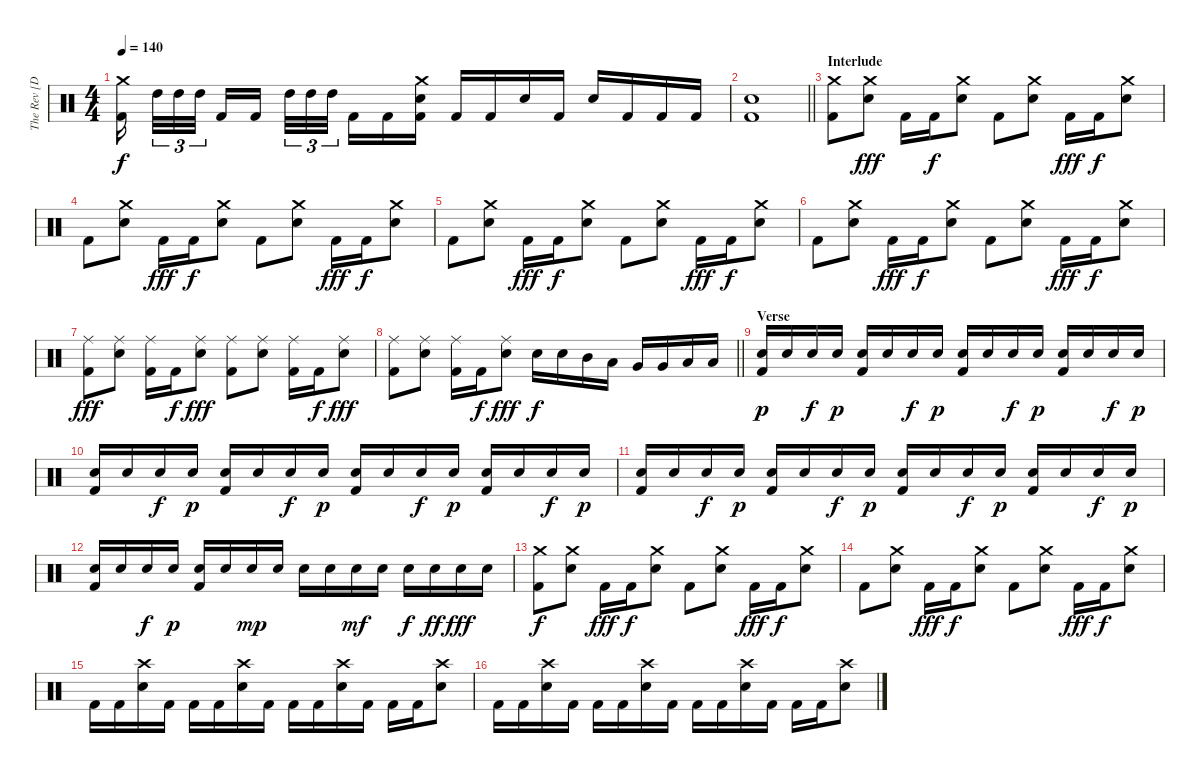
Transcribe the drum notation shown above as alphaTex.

\track ("The Rev [Drum]" "The Rev [D") {instrument percussion}
\staff {score}
\articulation defaults
\ts (4 4)
\tempo 140
\clef neutral
\ks c
("Crash medium (hit)" "Kick (hit) 2").16{dy f beam splitsecondary} "High Tom (hit)".32{tu (3 2)} "High Tom (hit)".32{tu (3 2)} "High Tom (hit)".32{tu (3 2) beam splitsecondary} "Kick (hit) 2".16 "Kick (hit) 2".16 "High Tom (hit)".32{tu (3 2)} "High Tom (hit)".32{tu (3 2)} "High Tom (hit)".32{tu (3 2) beam splitsecondary} "Kick (hit) 2".16 "Kick (hit) 2".16 ("Crash medium (hit)" "Snare (hit) 2" "Kick (hit) 2").16 "Kick (hit) 2".16 "Kick (hit) 2".16 "Snare (hit) 2".16 "Kick (hit) 2".16 "Snare (hit) 2".16 "Kick (hit) 2".16 "Kick (hit) 2".16 "Kick (hit) 2".16 |
\barLineRight lightlight
("Snare (hit) 2" "Kick (hit) 2").1 |
\section ("" "Interlude")
("Crash medium (hit)" "Kick (hit) 2").8 ("Crash medium (hit)" "Snare (hit) 2").8{dy fff} "Kick (hit) 2".16 "Kick (hit) 2".16{dy f} ("Crash medium (hit)" "Snare (hit) 2").8 "Kick (hit) 2".8 ("Crash medium (hit)" "Snare (hit) 2").8 "Kick (hit) 2".16{dy fff} "Kick (hit) 2".16{dy f} ("Crash medium (hit)" "Snare (hit) 2").8 |
"Kick (hit) 2".8 ("Crash medium (hit)" "Snare (hit) 2").8 "Kick (hit) 2".16{dy fff} "Kick (hit) 2".16{dy f} ("Crash medium (hit)" "Snare (hit) 2").8 "Kick (hit) 2".8 ("Crash medium (hit)" "Snare (hit) 2").8 "Kick (hit) 2".16{dy fff} "Kick (hit) 2".16{dy f} ("Crash medium (hit)" "Snare (hit) 2").8 |
"Kick (hit) 2".8 ("Crash medium (hit)" "Snare (hit) 2").8 "Kick (hit) 2".16{dy fff} "Kick (hit) 2".16{dy f} ("Crash medium (hit)" "Snare (hit) 2").8 "Kick (hit) 2".8 ("Crash medium (hit)" "Snare (hit) 2").8 "Kick (hit) 2".16{dy fff} "Kick (hit) 2".16{dy f} ("Crash medium (hit)" "Snare (hit) 2").8 |
"Kick (hit) 2".8 ("Crash medium (hit)" "Snare (hit) 2").8 "Kick (hit) 2".16{dy fff} "Kick (hit) 2".16{dy f} ("Crash medium (hit)" "Snare (hit) 2").8 "Kick (hit) 2".8 ("Crash medium (hit)" "Snare (hit) 2").8 "Kick (hit) 2".16{dy fff} "Kick (hit) 2".16{dy f} ("Crash medium (hit)" "Snare (hit) 2").8 |
("Ride (middle)" "Kick (hit) 2").8{dy fff} ("Ride (middle)" "Snare (hit) 2").8 ("Ride (middle)" "Kick (hit) 2").16 "Kick (hit) 2".16{dy f} ("Ride (middle)" "Snare (hit) 2").8{dy fff} ("Ride (middle)" "Kick (hit) 2").8 ("Ride (middle)" "Snare (hit) 2").8 ("Ride (middle)" "Kick (hit) 2").16 "Kick (hit) 2".16{dy f} ("Ride (middle)" "Snare (hit) 2").8{dy fff} |
\barLineRight lightlight
("Ride (middle)" "Kick (hit) 2").8 ("Ride (middle)" "Snare (hit) 2").8 ("Ride (middle)" "Kick (hit) 2").16 "Kick (hit) 2".16{dy f} ("Ride (middle)" "Snare (hit) 2").8{dy fff} "Snare (hit) 2".16{dy f} "Snare (hit) 2".16 "Mid Tom (hit)".16 "Low Tom (hit)".16 "Very Low Tom (hit)".16 "Very Low Tom (hit)".16 "Low Floor Tom (hit)".16 "Low Floor Tom (hit)".16 |
\section ("" "Verse")
("Snare (hit) 2" "Kick (hit) 2").16{dy p} "Snare (hit) 2".16 "Snare (hit) 2".16{dy f} "Snare (hit) 2".16{dy p} ("Snare (hit) 2" "Kick (hit) 2").16 "Snare (hit) 2".16 "Snare (hit) 2".16{dy f} "Snare (hit) 2".16{dy p} ("Snare (hit) 2" "Kick (hit) 2").16 "Snare (hit) 2".16 "Snare (hit) 2".16{dy f} "Snare (hit) 2".16{dy p} ("Snare (hit) 2" "Kick (hit) 2").16 "Snare (hit) 2".16 "Snare (hit) 2".16{dy f} "Snare (hit) 2".16{dy p} |
("Snare (hit) 2" "Kick (hit) 2").16 "Snare (hit) 2".16 "Snare (hit) 2".16{dy f} "Snare (hit) 2".16{dy p} ("Snare (hit) 2" "Kick (hit) 2").16 "Snare (hit) 2".16 "Snare (hit) 2".16{dy f} "Snare (hit) 2".16{dy p} ("Snare (hit) 2" "Kick (hit) 2").16 "Snare (hit) 2".16 "Snare (hit) 2".16{dy f} "Snare (hit) 2".16{dy p} ("Snare (hit) 2" "Kick (hit) 2").16 "Snare (hit) 2".16 "Snare (hit) 2".16{dy f} "Snare (hit) 2".16{dy p} |
("Snare (hit) 2" "Kick (hit) 2").16 "Snare (hit) 2".16 "Snare (hit) 2".16{dy f} "Snare (hit) 2".16{dy p} ("Snare (hit) 2" "Kick (hit) 2").16 "Snare (hit) 2".16 "Snare (hit) 2".16{dy f} "Snare (hit) 2".16{dy p} ("Snare (hit) 2" "Kick (hit) 2").16 "Snare (hit) 2".16 "Snare (hit) 2".16{dy f} "Snare (hit) 2".16{dy p} ("Snare (hit) 2" "Kick (hit) 2").16 "Snare (hit) 2".16 "Snare (hit) 2".16{dy f} "Snare (hit) 2".16{dy p} |
("Snare (hit) 2" "Kick (hit) 2").16 "Snare (hit) 2".16 "Snare (hit) 2".16{dy f} "Snare (hit) 2".16{dy p} ("Snare (hit) 2" "Kick (hit) 2").16 "Snare (hit) 2".16 "Snare (hit) 2".16{dy mp} "Snare (hit) 2".16 "Snare (hit) 2".16 "Snare (hit) 2".16 "Snare (hit) 2".16{dy mf} "Snare (hit) 2".16 "Snare (hit) 2".16{dy f} "Snare (hit) 2".16{dy ff} "Snare (hit) 2".16{dy fff} "Snare (hit) 2".16 |
("Crash medium (hit)" "Kick (hit) 2").8{dy f} ("Crash medium (hit)" "Snare (hit) 2").8 "Kick (hit) 2".16{dy fff} "Kick (hit) 2".16{dy f} ("Crash medium (hit)" "Snare (hit) 2").8 "Kick (hit) 2".8 ("Crash medium (hit)" "Snare (hit) 2").8 "Kick (hit) 2".16{dy fff} "Kick (hit) 2".16{dy f} ("Crash medium (hit)" "Snare (hit) 2").8 |
"Kick (hit) 2".8 ("Crash medium (hit)" "Snare (hit) 2").8 "Kick (hit) 2".16{dy fff} "Kick (hit) 2".16{dy f} ("Crash medium (hit)" "Snare (hit) 2").8 "Kick (hit) 2".8 ("Crash medium (hit)" "Snare (hit) 2").8 "Kick (hit) 2".16{dy fff} "Kick (hit) 2".16{dy f} ("Crash medium (hit)" "Snare (hit) 2").8 |
"Kick (hit) 2".16 "Kick (hit) 2".16 ("Crash high (hit)" "Snare (hit) 2").16 "Kick (hit) 2".16 "Kick (hit) 2".16 "Kick (hit) 2".16 ("Crash high (hit)" "Snare (hit) 2").16 "Kick (hit) 2".16 "Kick (hit) 2".16 "Kick (hit) 2".16 ("Crash high (hit)" "Snare (hit) 2").16 "Kick (hit) 2".16 "Kick (hit) 2".16 "Kick (hit) 2".16 ("Crash high (hit)" "Snare (hit) 2").8 |
"Kick (hit) 2".16 "Kick (hit) 2".16 ("Crash high (hit)" "Snare (hit) 2").16 "Kick (hit) 2".16 "Kick (hit) 2".16 "Kick (hit) 2".16 ("Crash high (hit)" "Snare (hit) 2").16 "Kick (hit) 2".16 "Kick (hit) 2".16 "Kick (hit) 2".16 ("Crash high (hit)" "Snare (hit) 2").16 "Kick (hit) 2".16 "Kick (hit) 2".16 "Kick (hit) 2".16 ("Crash high (hit)" "Snare (hit) 2").8
